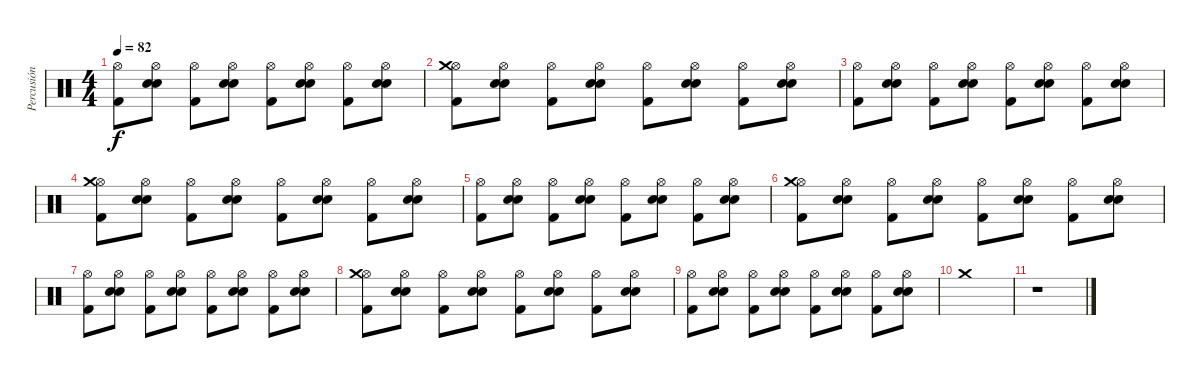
\track ("Percusión" "Percusión") {instrument percussion}
\staff {score}
\articulation defaults
\ts (4 4)
\tempo 82
\clef neutral
\ks c
("Hi-Hat (open)" "Kick (hit) 2").8{dy f} ("Snare (hit) 2" "Electric Snare (hit)" "Hi-Hat (open)").8 ("Hi-Hat (open)" "Kick (hit) 2").8 ("Snare (hit) 2" "Electric Snare (hit)" "Hi-Hat (open)").8 ("Hi-Hat (open)" "Kick (hit) 2").8 ("Snare (hit) 2" "Electric Snare (hit)" "Hi-Hat (open)").8 ("Hi-Hat (open)" "Kick (hit) 2").8 ("Snare (hit) 2" "Electric Snare (hit)" "Hi-Hat (open)").8 |
("Hi-Hat (open)" "Crash medium (hit)" "Kick (hit) 2").8 ("Snare (hit) 2" "Electric Snare (hit)" "Hi-Hat (open)").8 ("Hi-Hat (open)" "Kick (hit) 2").8 ("Snare (hit) 2" "Electric Snare (hit)" "Hi-Hat (open)").8 ("Hi-Hat (open)" "Kick (hit) 2").8 ("Snare (hit) 2" "Electric Snare (hit)" "Hi-Hat (open)").8 ("Hi-Hat (open)" "Kick (hit) 2").8 ("Snare (hit) 2" "Electric Snare (hit)" "Hi-Hat (open)").8 |
("Hi-Hat (open)" "Kick (hit) 2").8 ("Snare (hit) 2" "Electric Snare (hit)" "Hi-Hat (open)").8 ("Hi-Hat (open)" "Kick (hit) 2").8 ("Snare (hit) 2" "Electric Snare (hit)" "Hi-Hat (open)").8 ("Hi-Hat (open)" "Kick (hit) 2").8 ("Snare (hit) 2" "Electric Snare (hit)" "Hi-Hat (open)").8 ("Hi-Hat (open)" "Kick (hit) 2").8 ("Snare (hit) 2" "Electric Snare (hit)" "Hi-Hat (open)").8 |
("Hi-Hat (open)" "Crash medium (hit)" "Kick (hit) 2").8 ("Snare (hit) 2" "Electric Snare (hit)" "Hi-Hat (open)").8 ("Hi-Hat (open)" "Kick (hit) 2").8 ("Snare (hit) 2" "Electric Snare (hit)" "Hi-Hat (open)").8 ("Hi-Hat (open)" "Kick (hit) 2").8 ("Snare (hit) 2" "Electric Snare (hit)" "Hi-Hat (open)").8 ("Hi-Hat (open)" "Kick (hit) 2").8 ("Snare (hit) 2" "Electric Snare (hit)" "Hi-Hat (open)").8 |
("Hi-Hat (open)" "Kick (hit) 2").8 ("Snare (hit) 2" "Electric Snare (hit)" "Hi-Hat (open)").8 ("Hi-Hat (open)" "Kick (hit) 2").8 ("Snare (hit) 2" "Electric Snare (hit)" "Hi-Hat (open)").8 ("Hi-Hat (open)" "Kick (hit) 2").8 ("Snare (hit) 2" "Electric Snare (hit)" "Hi-Hat (open)").8 ("Hi-Hat (open)" "Kick (hit) 2").8 ("Snare (hit) 2" "Electric Snare (hit)" "Hi-Hat (open)").8 |
("Hi-Hat (open)" "Crash medium (hit)" "Kick (hit) 2").8 ("Snare (hit) 2" "Electric Snare (hit)" "Hi-Hat (open)").8 ("Hi-Hat (open)" "Kick (hit) 2").8 ("Snare (hit) 2" "Electric Snare (hit)" "Hi-Hat (open)").8 ("Hi-Hat (open)" "Kick (hit) 2").8 ("Snare (hit) 2" "Electric Snare (hit)" "Hi-Hat (open)").8 ("Hi-Hat (open)" "Kick (hit) 2").8 ("Snare (hit) 2" "Electric Snare (hit)" "Hi-Hat (open)").8 |
("Hi-Hat (open)" "Kick (hit) 2").8 ("Snare (hit) 2" "Electric Snare (hit)" "Hi-Hat (open)").8 ("Hi-Hat (open)" "Kick (hit) 2").8 ("Snare (hit) 2" "Electric Snare (hit)" "Hi-Hat (open)").8 ("Hi-Hat (open)" "Kick (hit) 2").8 ("Snare (hit) 2" "Electric Snare (hit)" "Hi-Hat (open)").8 ("Hi-Hat (open)" "Kick (hit) 2").8 ("Snare (hit) 2" "Electric Snare (hit)" "Hi-Hat (open)").8 |
("Hi-Hat (open)" "Crash medium (hit)" "Kick (hit) 2").8 ("Snare (hit) 2" "Electric Snare (hit)" "Hi-Hat (open)").8 ("Hi-Hat (open)" "Kick (hit) 2").8 ("Snare (hit) 2" "Electric Snare (hit)" "Hi-Hat (open)").8 ("Hi-Hat (open)" "Kick (hit) 2").8 ("Snare (hit) 2" "Electric Snare (hit)" "Hi-Hat (open)").8 ("Hi-Hat (open)" "Kick (hit) 2").8 ("Snare (hit) 2" "Electric Snare (hit)" "Hi-Hat (open)").8 |
("Hi-Hat (open)" "Kick (hit) 2").8 ("Snare (hit) 2" "Electric Snare (hit)" "Hi-Hat (open)").8 ("Hi-Hat (open)" "Kick (hit) 2").8 ("Snare (hit) 2" "Electric Snare (hit)" "Hi-Hat (open)").8 ("Hi-Hat (open)" "Kick (hit) 2").8 ("Snare (hit) 2" "Electric Snare (hit)" "Hi-Hat (open)").8 ("Hi-Hat (open)" "Kick (hit) 2").8 ("Snare (hit) 2" "Electric Snare (hit)" "Hi-Hat (open)").8 |
"Crash medium (hit)".1 |
r.1
